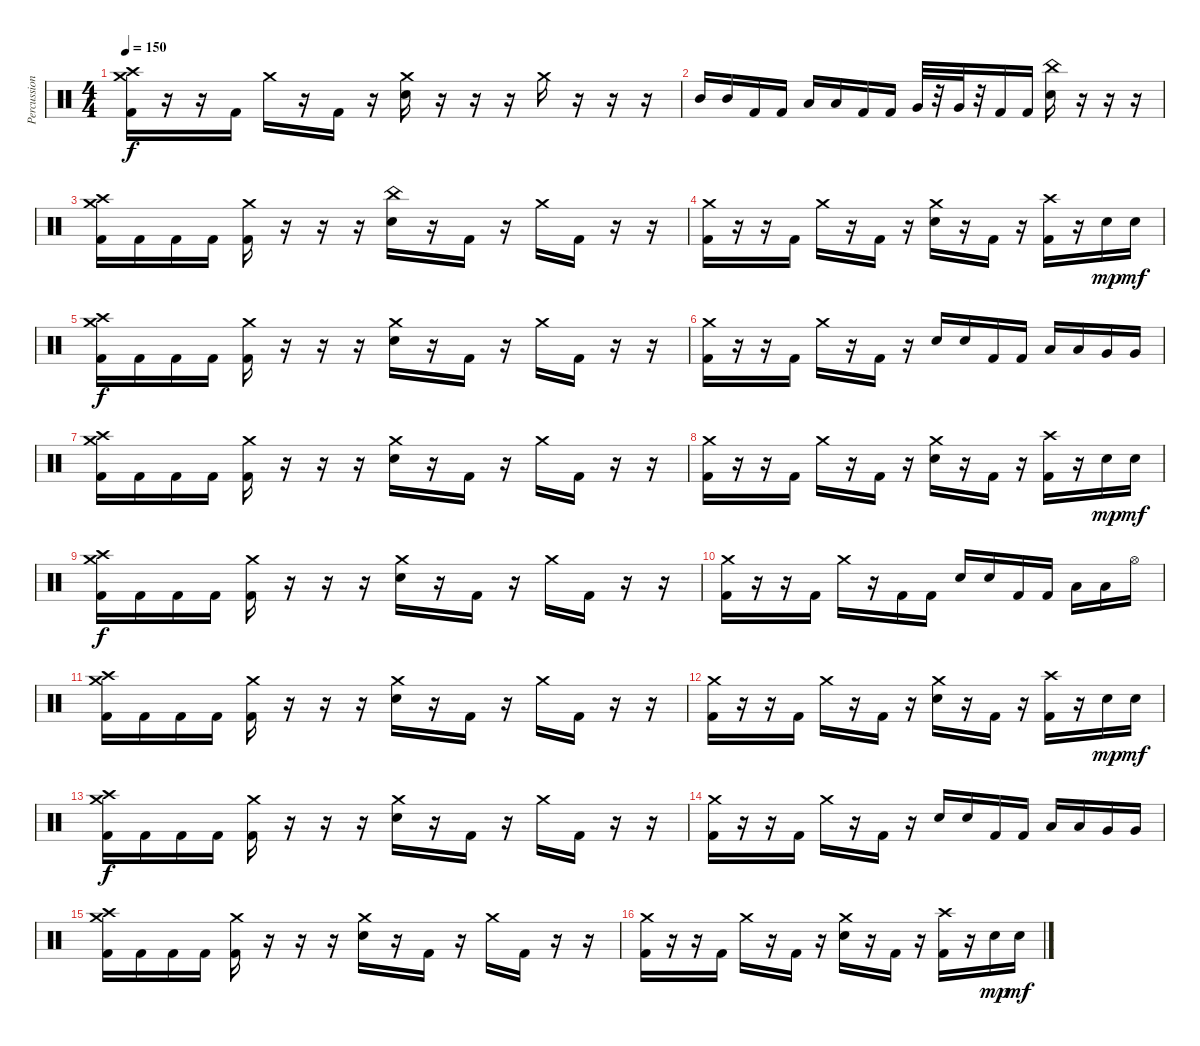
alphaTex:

\track ("Percussioni" "Percussion") {instrument percussion}
\staff {score}
\articulation defaults
\ts (4 4)
\tempo 150
\clef neutral
\ks c
("Crash high (hit)" "Kick (hit) 2" "Crash medium (hit)").16{dy f} r.16 r.16 "Kick (hit) 2".16 "Crash medium (hit)".16 r.16 "Kick (hit) 2".16 r.16 ("Snare (hit) 2" "Crash medium (hit)").16 r.16 r.16 r.16 "Crash medium (hit)".16 r.16 r.16 r.16 |
"Mid Tom (hit)".16 "Mid Tom (hit)".16 "Kick (hit) 2".16 "Kick (hit) 2".16 "Low Tom (hit)".16 "Low Tom (hit)".16 "Kick (hit) 2".16 "Kick (hit) 2".16 "Very Low Tom (hit)".32 r.32 "Very Low Tom (hit)".32 r.32 "Kick (hit) 2".16 "Kick (hit) 2".16 ("Snare (hit) 2" "China (hit)").16 r.16 r.16 r.16 |
("Crash high (hit)" "Kick (hit) 2" "Crash medium (hit)").16 "Kick (hit) 2".16 "Kick (hit) 2".16 "Kick (hit) 2".16 ("Kick (hit) 2" "Crash medium (hit)").16 r.16 r.16 r.16 ("Snare (hit) 2" "China (hit)").16 r.16 "Kick (hit) 2".16 r.16 "Crash medium (hit)".16 "Kick (hit) 2".16 r.16 r.16 |
("Crash medium (hit)" "Kick (hit) 2").16 r.16 r.16 "Kick (hit) 2".16 "Crash medium (hit)".16 r.16 "Kick (hit) 2".16 r.16 ("Snare (hit) 2" "Crash medium (hit)").16 r.16 "Kick (hit) 2".16 r.16 ("Kick (hit) 2" "Crash high (hit)").16 r.16 "Snare (hit) 2".16{dy mp} "Snare (hit) 2".16{dy mf} |
("Crash high (hit)" "Kick (hit) 2" "Crash medium (hit)").16{dy f} "Kick (hit) 2".16 "Kick (hit) 2".16 "Kick (hit) 2".16 ("Kick (hit) 2" "Crash medium (hit)").16 r.16 r.16 r.16 ("Snare (hit) 2" "Crash medium (hit)").16 r.16 "Kick (hit) 2".16 r.16 "Crash medium (hit)".16 "Kick (hit) 2".16 r.16 r.16 |
("Crash medium (hit)" "Kick (hit) 2").16 r.16 r.16 "Kick (hit) 2".16 "Crash medium (hit)".16 r.16 "Kick (hit) 2".16 r.16 "Snare (hit) 2".16 "Snare (hit) 2".16 "Kick (hit) 2".16 "Kick (hit) 2".16 "Low Tom (hit)".16 "Low Tom (hit)".16 "Very Low Tom (hit)".16 "Very Low Tom (hit)".16 |
("Crash high (hit)" "Kick (hit) 2" "Crash medium (hit)").16 "Kick (hit) 2".16 "Kick (hit) 2".16 "Kick (hit) 2".16 ("Kick (hit) 2" "Crash medium (hit)").16 r.16 r.16 r.16 ("Snare (hit) 2" "Crash medium (hit)").16 r.16 "Kick (hit) 2".16 r.16 "Crash medium (hit)".16 "Kick (hit) 2".16 r.16 r.16 |
("Crash medium (hit)" "Kick (hit) 2").16 r.16 r.16 "Kick (hit) 2".16 "Crash medium (hit)".16 r.16 "Kick (hit) 2".16 r.16 ("Snare (hit) 2" "Crash medium (hit)").16 r.16 "Kick (hit) 2".16 r.16 ("Kick (hit) 2" "Crash high (hit)").16 r.16 "Snare (hit) 2".16{dy mp} "Snare (hit) 2".16{dy mf} |
("Crash high (hit)" "Kick (hit) 2" "Crash medium (hit)").16{dy f} "Kick (hit) 2".16 "Kick (hit) 2".16 "Kick (hit) 2".16 ("Kick (hit) 2" "Crash medium (hit)").16 r.16 r.16 r.16 ("Snare (hit) 2" "Crash medium (hit)").16 r.16 "Kick (hit) 2".16 r.16 "Crash medium (hit)".16 "Kick (hit) 2".16 r.16 r.16 |
("Crash medium (hit)" "Kick (hit) 2").16 r.16 r.16 "Kick (hit) 2".16 "Crash medium (hit)".16 r.16 "Kick (hit) 2".16 "Kick (hit) 2".16 "Snare (hit) 2".16 "Snare (hit) 2".16 "Kick (hit) 2".16 "Kick (hit) 2".16 "Low Tom (hit)".16 "Low Tom (hit)".16 "Hi-Hat (open)".16 |
("Crash high (hit)" "Kick (hit) 2" "Crash medium (hit)").16 "Kick (hit) 2".16 "Kick (hit) 2".16 "Kick (hit) 2".16 ("Kick (hit) 2" "Crash medium (hit)").16 r.16 r.16 r.16 ("Snare (hit) 2" "Crash medium (hit)").16 r.16 "Kick (hit) 2".16 r.16 "Crash medium (hit)".16 "Kick (hit) 2".16 r.16 r.16 |
("Crash medium (hit)" "Kick (hit) 2").16 r.16 r.16 "Kick (hit) 2".16 "Crash medium (hit)".16 r.16 "Kick (hit) 2".16 r.16 ("Snare (hit) 2" "Crash medium (hit)").16 r.16 "Kick (hit) 2".16 r.16 ("Kick (hit) 2" "Crash high (hit)").16 r.16 "Snare (hit) 2".16{dy mp} "Snare (hit) 2".16{dy mf} |
("Crash high (hit)" "Kick (hit) 2" "Crash medium (hit)").16{dy f} "Kick (hit) 2".16 "Kick (hit) 2".16 "Kick (hit) 2".16 ("Kick (hit) 2" "Crash medium (hit)").16 r.16 r.16 r.16 ("Snare (hit) 2" "Crash medium (hit)").16 r.16 "Kick (hit) 2".16 r.16 "Crash medium (hit)".16 "Kick (hit) 2".16 r.16 r.16 |
("Crash medium (hit)" "Kick (hit) 2").16 r.16 r.16 "Kick (hit) 2".16 "Crash medium (hit)".16 r.16 "Kick (hit) 2".16 r.16 "Snare (hit) 2".16 "Snare (hit) 2".16 "Kick (hit) 2".16 "Kick (hit) 2".16 "Low Tom (hit)".16 "Low Tom (hit)".16 "Very Low Tom (hit)".16 "Very Low Tom (hit)".16 |
("Crash high (hit)" "Kick (hit) 2" "Crash medium (hit)").16 "Kick (hit) 2".16 "Kick (hit) 2".16 "Kick (hit) 2".16 ("Kick (hit) 2" "Crash medium (hit)").16 r.16 r.16 r.16 ("Snare (hit) 2" "Crash medium (hit)").16 r.16 "Kick (hit) 2".16 r.16 "Crash medium (hit)".16 "Kick (hit) 2".16 r.16 r.16 |
("Crash medium (hit)" "Kick (hit) 2").16 r.16 r.16 "Kick (hit) 2".16 "Crash medium (hit)".16 r.16 "Kick (hit) 2".16 r.16 ("Snare (hit) 2" "Crash medium (hit)").16 r.16 "Kick (hit) 2".16 r.16 ("Kick (hit) 2" "Crash high (hit)").16 r.16 "Snare (hit) 2".16{dy mp} "Snare (hit) 2".16{dy mf}
